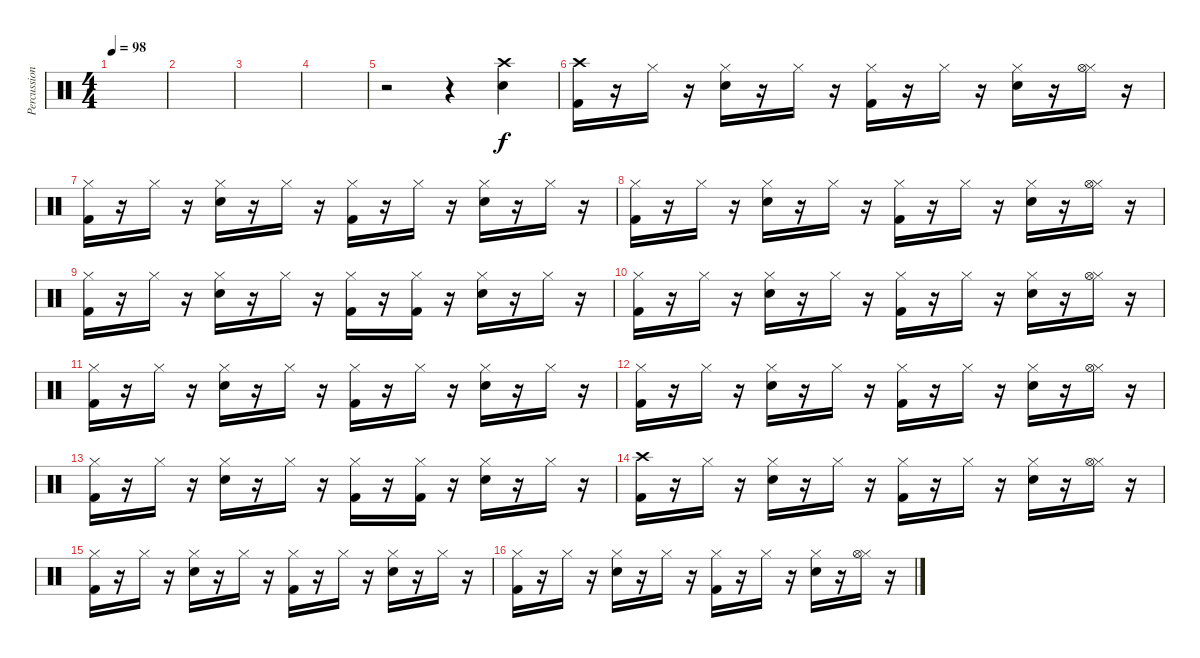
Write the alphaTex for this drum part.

\track ("Percussion" "Percussion") {instrument percussion}
\staff {score}
\articulation defaults
\ts (4 4)
\tempo 98
\clef neutral
\ks c
|
|
|
|
r.2 r.4 ("Crash high (hit)" "Snare (hit) 2").4 |
("Crash high (hit)" "Kick (hit) 2").16 r.16 "Hi-Hat (closed)".16 r.16 ("Hi-Hat (closed)" "Electric Snare (hit)").16 r.16 "Hi-Hat (closed)".16 r.16 ("Hi-Hat (closed)" "Kick (hit) 2").16 r.16 "Hi-Hat (closed)".16 r.16 ("Hi-Hat (closed)" "Electric Snare (hit)").16 r.16 ("Hi-Hat (closed)" "Hi-Hat (open)").16 r.16 |
("Hi-Hat (closed)" "Kick (hit) 2").16 r.16 "Hi-Hat (closed)".16 r.16 ("Hi-Hat (closed)" "Electric Snare (hit)").16 r.16 "Hi-Hat (closed)".16 r.16 ("Hi-Hat (closed)" "Kick (hit) 2").16 r.16 "Hi-Hat (closed)".16 r.16 ("Hi-Hat (closed)" "Electric Snare (hit)").16 r.16 "Hi-Hat (closed)".16 r.16 |
("Hi-Hat (closed)" "Kick (hit) 2").16 r.16 "Hi-Hat (closed)".16 r.16 ("Hi-Hat (closed)" "Electric Snare (hit)").16 r.16 "Hi-Hat (closed)".16 r.16 ("Hi-Hat (closed)" "Kick (hit) 2").16 r.16 "Hi-Hat (closed)".16 r.16 ("Hi-Hat (closed)" "Electric Snare (hit)").16 r.16 ("Hi-Hat (closed)" "Hi-Hat (open)").16 r.16 |
("Hi-Hat (closed)" "Kick (hit) 2").16 r.16 "Hi-Hat (closed)".16 r.16 ("Hi-Hat (closed)" "Electric Snare (hit)").16 r.16 "Hi-Hat (closed)".16 r.16 ("Hi-Hat (closed)" "Kick (hit) 2").16 r.16 ("Hi-Hat (closed)" "Kick (hit) 2").16 r.16 ("Hi-Hat (closed)" "Electric Snare (hit)").16 r.16 "Hi-Hat (closed)".16 r.16 |
("Hi-Hat (closed)" "Kick (hit) 2").16 r.16 "Hi-Hat (closed)".16 r.16 ("Hi-Hat (closed)" "Electric Snare (hit)").16 r.16 "Hi-Hat (closed)".16 r.16 ("Hi-Hat (closed)" "Kick (hit) 2").16 r.16 "Hi-Hat (closed)".16 r.16 ("Hi-Hat (closed)" "Electric Snare (hit)").16 r.16 ("Hi-Hat (closed)" "Hi-Hat (open)").16 r.16 |
("Hi-Hat (closed)" "Kick (hit) 2").16 r.16 "Hi-Hat (closed)".16 r.16 ("Hi-Hat (closed)" "Electric Snare (hit)").16 r.16 "Hi-Hat (closed)".16 r.16 ("Hi-Hat (closed)" "Kick (hit) 2").16 r.16 "Hi-Hat (closed)".16 r.16 ("Hi-Hat (closed)" "Electric Snare (hit)").16 r.16 "Hi-Hat (closed)".16 r.16 |
("Hi-Hat (closed)" "Kick (hit) 2").16 r.16 "Hi-Hat (closed)".16 r.16 ("Hi-Hat (closed)" "Electric Snare (hit)").16 r.16 "Hi-Hat (closed)".16 r.16 ("Hi-Hat (closed)" "Kick (hit) 2").16 r.16 "Hi-Hat (closed)".16 r.16 ("Hi-Hat (closed)" "Electric Snare (hit)").16 r.16 ("Hi-Hat (closed)" "Hi-Hat (open)").16 r.16 |
("Hi-Hat (closed)" "Kick (hit) 2").16 r.16 "Hi-Hat (closed)".16 r.16 ("Hi-Hat (closed)" "Electric Snare (hit)").16 r.16 "Hi-Hat (closed)".16 r.16 ("Hi-Hat (closed)" "Kick (hit) 2").16 r.16 ("Hi-Hat (closed)" "Kick (hit) 2").16 r.16 ("Hi-Hat (closed)" "Electric Snare (hit)").16 r.16 "Hi-Hat (closed)".16 r.16 |
("Crash high (hit)" "Kick (hit) 2").16 r.16 "Hi-Hat (closed)".16 r.16 ("Hi-Hat (closed)" "Electric Snare (hit)").16 r.16 "Hi-Hat (closed)".16 r.16 ("Hi-Hat (closed)" "Kick (hit) 2").16 r.16 "Hi-Hat (closed)".16 r.16 ("Hi-Hat (closed)" "Electric Snare (hit)").16 r.16 ("Hi-Hat (closed)" "Hi-Hat (open)").16 r.16 |
("Hi-Hat (closed)" "Kick (hit) 2").16 r.16 "Hi-Hat (closed)".16 r.16 ("Hi-Hat (closed)" "Electric Snare (hit)").16 r.16 "Hi-Hat (closed)".16 r.16 ("Hi-Hat (closed)" "Kick (hit) 2").16 r.16 "Hi-Hat (closed)".16 r.16 ("Hi-Hat (closed)" "Electric Snare (hit)").16 r.16 "Hi-Hat (closed)".16 r.16 |
("Hi-Hat (closed)" "Kick (hit) 2").16 r.16 "Hi-Hat (closed)".16 r.16 ("Hi-Hat (closed)" "Electric Snare (hit)").16 r.16 "Hi-Hat (closed)".16 r.16 ("Hi-Hat (closed)" "Kick (hit) 2").16 r.16 "Hi-Hat (closed)".16 r.16 ("Hi-Hat (closed)" "Electric Snare (hit)").16 r.16 ("Hi-Hat (closed)" "Hi-Hat (open)").16 r.16
